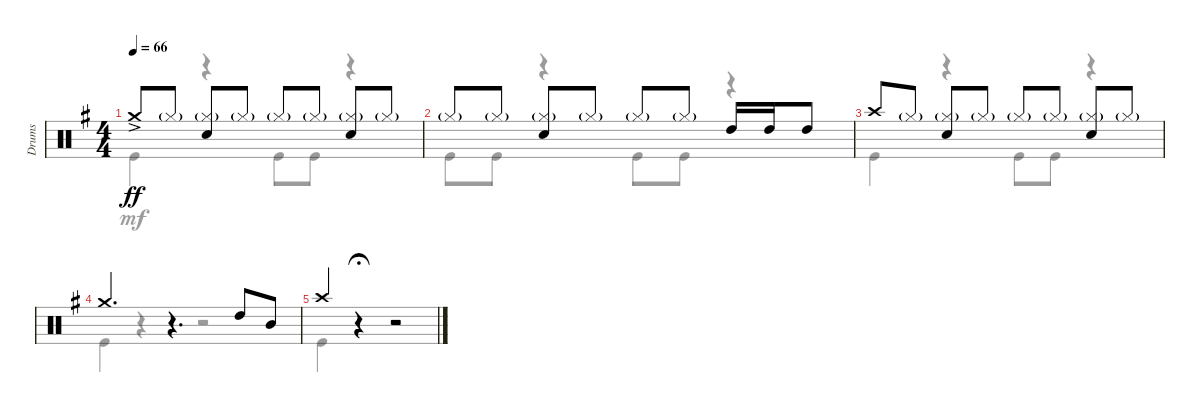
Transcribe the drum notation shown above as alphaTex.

\defaultSystemsLayout 4
\bracketExtendMode groupsimilarinstruments
\otherSystemsTrackNameOrientation horizontal
\track ("Drumkit" "Drums") {instrument percussion}
\staff {score}
\articulation defaults
\voice
\ts (4 4)
\tempo 66
\clef neutral
\ks g "Crash medium (hit)"{ac}.8{dy ff} "Hi-Hat (closed)"{g}.8
("Hi-Hat (closed)"{g} "Snare (hit) 2").8 "Hi-Hat (closed)"{g}.8 "Hi-Hat (closed)"{g}.8 "Hi-Hat (closed)"{g}.8 ("Hi-Hat (closed)"{g} "Snare (hit) 2").8 "Hi-Hat (closed)"{g}.8 |
"Hi-Hat (closed)"{g}.8 "Hi-Hat (closed)"{g}.8 ("Hi-Hat (closed)"{g} "Snare (hit) 2").8 "Hi-Hat (closed)"{g}.8 "Hi-Hat (closed)"{g}.8 "Hi-Hat (closed)"{g}.8 "High Tom (hit)".16 "High Tom (hit)".16 "High Tom (hit)".8 |
"Crash high (hit)".8 "Hi-Hat (closed)"{g}.8 ("Hi-Hat (closed)"{g} "Snare (hit) 2").8 "Hi-Hat (closed)"{g}.8 "Hi-Hat (closed)"{g}.8 "Hi-Hat (closed)"{g}.8 ("Hi-Hat (closed)"{g} "Snare (hit) 2").8 "Hi-Hat (closed)"{g}.8 |
"Crash medium (hit)".4{d} r.4{d} "High Tom (hit)".8 "Mid Tom (hit)".8 |
"Crash high (hit)".4 r.4{fermata (medium 0.5)} r.2
\voice
\clef neutral
\ottava regular
\simile none
\ks g "Kick (hit)".4{dy mf}
r.4 "Kick (hit)".8 "Kick (hit)".8 r.4 |
"Kick (hit)".8 "Kick (hit)".8 r.4 "Kick (hit)".8 "Kick (hit)".8 r.4 |
"Kick (hit)".4 r.4 "Kick (hit)".8 "Kick (hit)".8 r.4 |
"Kick (hit)".4 r.4 r.2 |
"Kick (hit)".4 r.4{fermata (medium 0.5)} r.2
